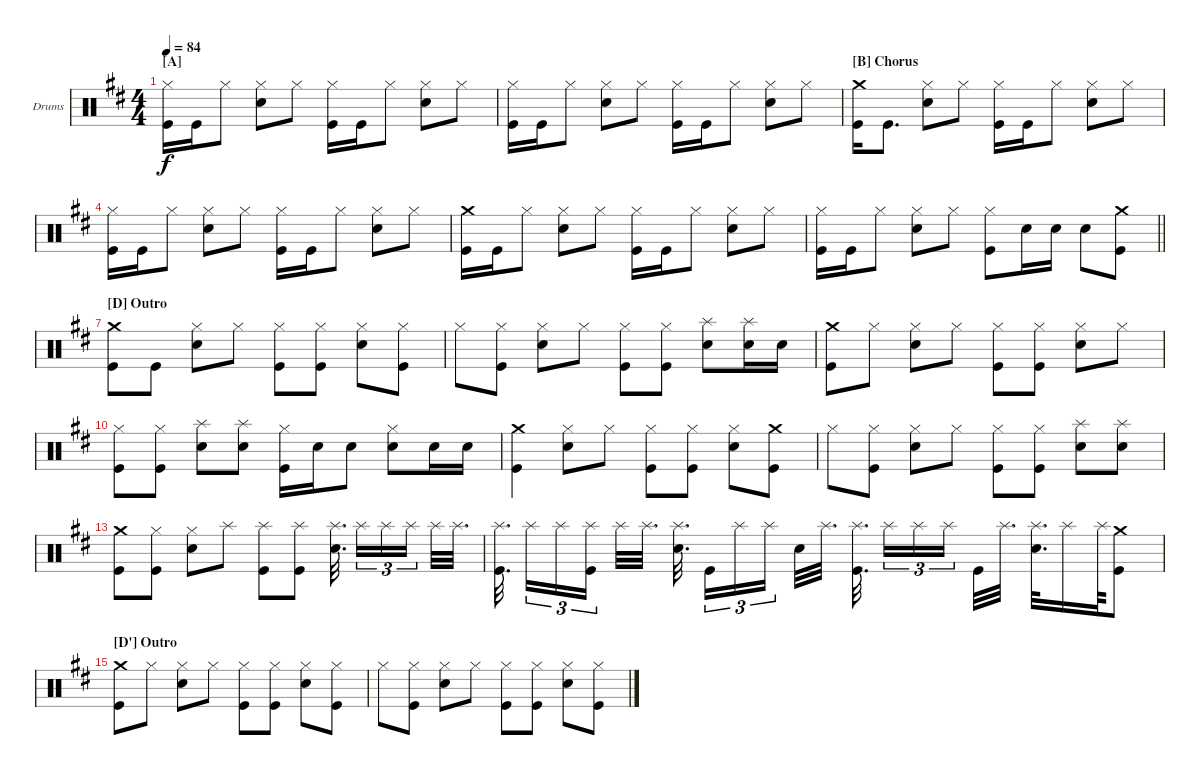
\bracketExtendMode nobrackets
\firstSystemTrackNameOrientation horizontal
\otherSystemsTrackNameOrientation horizontal
\defaultBarNumberDisplay FirstOfSystem
\track ("Drumkit" "Drums") {instrument percussion}
\staff {score}
\articulation defaults
\ts (4 4)
\section ("A" "")
\tempo 84
\clef neutral
\ks d
("Kick (hit)" "Hi-Hat (closed)").16{dy f} "Kick (hit)".16 "Hi-Hat (closed)".8 ("Snare (hit) 2" "Hi-Hat (closed)").8 "Hi-Hat (closed)".8 ("Kick (hit)" "Hi-Hat (closed)").16 "Kick (hit)".16 "Hi-Hat (closed)".8 ("Snare (hit) 2" "Hi-Hat (closed)").8 "Hi-Hat (closed)".8 |
("Kick (hit)" "Hi-Hat (closed)").16 "Kick (hit)".16 "Hi-Hat (closed)".8 ("Snare (hit) 2" "Hi-Hat (closed)").8 "Hi-Hat (closed)".8 ("Kick (hit)" "Hi-Hat (closed)").16 "Kick (hit)".16 "Hi-Hat (closed)".8 ("Snare (hit) 2" "Hi-Hat (closed)").8 "Hi-Hat (closed)".8 |
\section ("B" "Chorus")
("Kick (hit)" "Crash medium (hit)").16 "Kick (hit)".8{d} ("Snare (hit) 2" "Hi-Hat (closed)").8 "Hi-Hat (closed)".8 ("Kick (hit)" "Hi-Hat (closed)").16 "Kick (hit)".16 "Hi-Hat (closed)".8 ("Snare (hit) 2" "Hi-Hat (closed)").8 "Hi-Hat (closed)".8 |
("Kick (hit)" "Hi-Hat (closed)").16 "Kick (hit)".16 "Hi-Hat (closed)".8 ("Snare (hit) 2" "Hi-Hat (closed)").8 "Hi-Hat (closed)".8 ("Kick (hit)" "Hi-Hat (closed)").16 "Kick (hit)".16 "Hi-Hat (closed)".8 ("Snare (hit) 2" "Hi-Hat (closed)").8 "Hi-Hat (closed)".8 |
("Kick (hit)" "Crash medium (hit)").16 "Kick (hit)".16 "Hi-Hat (closed)".8 ("Snare (hit) 2" "Hi-Hat (closed)").8 "Hi-Hat (closed)".8 ("Kick (hit)" "Hi-Hat (closed)").16 "Kick (hit)".16 "Hi-Hat (closed)".8 ("Snare (hit) 2" "Hi-Hat (closed)").8 "Hi-Hat (closed)".8 |
\barLineRight lightlight
("Kick (hit)" "Hi-Hat (closed)").16 "Kick (hit)".16 "Hi-Hat (closed)".8 ("Snare (hit) 2" "Hi-Hat (closed)").8 "Hi-Hat (closed)".8 ("Kick (hit)" "Hi-Hat (closed)").8 "Snare (hit) 2".16 "Snare (hit) 2".16 "Snare (hit) 2".8 ("Kick (hit)" "Crash medium (hit)").8 |
\section ("D" "Outro")
("Kick (hit)" "Crash medium (hit)").8 "Kick (hit)".8 ("Snare (hit) 2" "Hi-Hat (closed)").8 "Hi-Hat (closed)".8 ("Kick (hit)" "Hi-Hat (closed)").8 ("Kick (hit)" "Hi-Hat (closed)").8 ("Snare (hit) 2" "Hi-Hat (closed)").8 ("Kick (hit)" "Hi-Hat (closed)").8 |
"Hi-Hat (closed)".8 ("Kick (hit)" "Hi-Hat (closed)").8 ("Snare (hit) 2" "Hi-Hat (closed)").8 "Hi-Hat (closed)".8 ("Kick (hit)" "Hi-Hat (closed)").8 ("Kick (hit)" "Hi-Hat (closed)").8 ("Snare (hit) 2" "Splash (hit)").8 ("Snare (hit) 2" "Splash (hit)").16 "Snare (hit) 2".16 |
("Kick (hit)" "Crash medium (hit)").8 "Hi-Hat (closed)".8 ("Snare (hit) 2" "Hi-Hat (closed)").8 "Hi-Hat (closed)".8 ("Kick (hit)" "Hi-Hat (closed)").8 ("Kick (hit)" "Hi-Hat (closed)").8 ("Snare (hit) 2" "Hi-Hat (closed)").8 "Hi-Hat (closed)".8 |
("Kick (hit)" "Hi-Hat (closed)").8 ("Kick (hit)" "Hi-Hat (closed)").8 ("Snare (hit) 2" "Splash (hit)").8 ("Snare (hit) 2" "Splash (hit)").8 ("Kick (hit)" "Hi-Hat (closed)").16 "Snare (hit) 2".16 "Snare (hit) 2".8 ("Snare (hit) 2" "Hi-Hat (closed)").8 "Snare (hit) 2".16 "Snare (hit) 2".16 |
("Kick (hit)" "Crash medium (hit)").4 ("Snare (hit) 2" "Hi-Hat (closed)").8 "Hi-Hat (closed)".8 ("Kick (hit)" "Hi-Hat (closed)").8 ("Kick (hit)" "Hi-Hat (closed)").8 ("Snare (hit) 2" "Hi-Hat (closed)").8 ("Kick (hit)" "Crash medium (hit)").8 |
"Hi-Hat (closed)".8 ("Kick (hit)" "Hi-Hat (closed)").8 ("Snare (hit) 2" "Hi-Hat (closed)").8 "Hi-Hat (closed)".8 ("Kick (hit)" "Hi-Hat (closed)").8 ("Kick (hit)" "Hi-Hat (closed)").8 ("Snare (hit) 2" "Splash (hit)").8 ("Snare (hit) 2" "Splash (hit)").8 |
("Kick (hit)" "Crash medium (hit)").8 ("Kick (hit)" "Hi-Hat (closed)").8 ("Snare (hit) 2" "Hi-Hat (closed)").8 "Splash (hit)".8 ("Kick (hit)" "Splash (hit)").8 ("Kick (hit)" "Splash (hit)").8 ("Snare (hit) 2" "Splash (hit)").32{d} "Splash (hit)".16{tu (3 2)} "Splash (hit)".16{tu (3 2)} "Splash (hit)".16{tu (3 2)} "Splash (hit)".32 "Splash (hit)".32{d} |
("Kick (hit)" "Splash (hit)").32{d} "Splash (hit)".16{tu (3 2)} "Splash (hit)".16{tu (3 2)} ("Kick (hit)" "Splash (hit)").16{tu (3 2)} "Splash (hit)".32 "Splash (hit)".32{d} ("Snare (hit) 2" "Splash (hit)").32{d} "Kick (hit)".16{tu (3 2)} "Splash (hit)".16{tu (3 2)} "Splash (hit)".16{tu (3 2)} "Snare (hit) 2".32 "Splash (hit)".32{d} ("Kick (hit)" "Splash (hit)").32{d} "Splash (hit)".16{tu (3 2)} "Splash (hit)".16{tu (3 2)} "Splash (hit)".16{tu (3 2)} "Kick (hit)".32 "Splash (hit)".32{d} ("Snare (hit) 2" "Splash (hit)").32{d} "Splash (hit)".16 "Splash (hit)".64 ("Kick (hit)" "Crash medium (hit)").8 |
\section ("D'" "Outro")
("Kick (hit)" "Crash medium (hit)").8 "Hi-Hat (closed)".8 ("Snare (hit) 2" "Hi-Hat (closed)").8 "Hi-Hat (closed)".8 ("Kick (hit)" "Hi-Hat (closed)").8 ("Kick (hit)" "Hi-Hat (closed)").8 ("Snare (hit) 2" "Hi-Hat (closed)").8 ("Kick (hit)" "Hi-Hat (closed)").8 |
"Hi-Hat (closed)".8 ("Kick (hit)" "Hi-Hat (closed)").8 ("Snare (hit) 2" "Hi-Hat (closed)").8 "Hi-Hat (closed)".8 ("Kick (hit)" "Hi-Hat (closed)").8 ("Kick (hit)" "Hi-Hat (closed)").8 ("Snare (hit) 2" "Hi-Hat (closed)").8 ("Kick (hit)" "Hi-Hat (closed)").8
